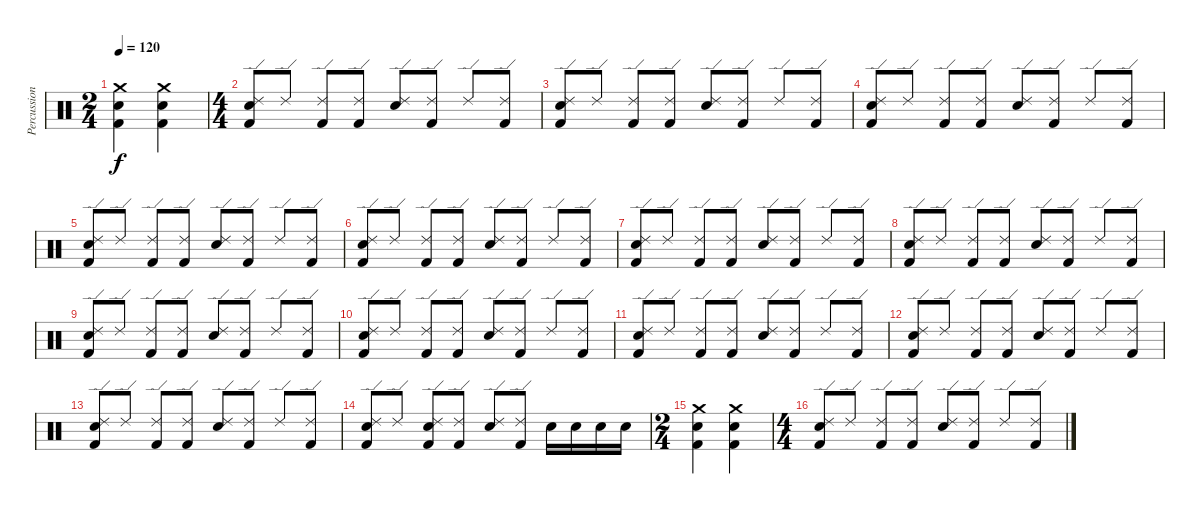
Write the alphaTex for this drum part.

\track ("Percussion" "Percussion") {instrument percussion}
\staff {score}
\articulation defaults
\ts (2 4)
\tempo 120
\clef neutral
\ks c
("Kick (hit) 2" "Electric Snare (hit)" "Crash medium (hit)").4{dy f} ("Kick (hit) 2" "Electric Snare (hit)" "Crash medium (hit)").4 |
\ts (4 4)
("Kick (hit) 2" "Electric Snare (hit)" "Ride (edge) 2").8 "Ride (edge) 2".8 ("Kick (hit) 2" "Ride (edge) 2").8 ("Kick (hit) 2" "Ride (edge) 2").8 ("Electric Snare (hit)" "Ride (edge) 2").8 ("Kick (hit) 2" "Ride (edge) 2").8 "Ride (edge) 2".8 ("Kick (hit) 2" "Ride (edge) 2").8 |
("Kick (hit) 2" "Electric Snare (hit)" "Ride (edge) 2").8 "Ride (edge) 2".8 ("Kick (hit) 2" "Ride (edge) 2").8 ("Kick (hit) 2" "Ride (edge) 2").8 ("Electric Snare (hit)" "Ride (edge) 2").8 ("Kick (hit) 2" "Ride (edge) 2").8 "Ride (edge) 2".8 ("Kick (hit) 2" "Ride (edge) 2").8 |
("Kick (hit) 2" "Electric Snare (hit)" "Ride (edge) 2").8 "Ride (edge) 2".8 ("Kick (hit) 2" "Ride (edge) 2").8 ("Kick (hit) 2" "Ride (edge) 2").8 ("Electric Snare (hit)" "Ride (edge) 2").8 ("Kick (hit) 2" "Ride (edge) 2").8 "Ride (edge) 2".8 ("Kick (hit) 2" "Ride (edge) 2").8 |
("Kick (hit) 2" "Electric Snare (hit)" "Ride (edge) 2").8 "Ride (edge) 2".8 ("Kick (hit) 2" "Ride (edge) 2").8 ("Kick (hit) 2" "Ride (edge) 2").8 ("Electric Snare (hit)" "Ride (edge) 2").8 ("Kick (hit) 2" "Ride (edge) 2").8 "Ride (edge) 2".8 ("Kick (hit) 2" "Ride (edge) 2").8 |
("Kick (hit) 2" "Electric Snare (hit)" "Ride (edge) 2").8 "Ride (edge) 2".8 ("Kick (hit) 2" "Ride (edge) 2").8 ("Kick (hit) 2" "Ride (edge) 2").8 ("Electric Snare (hit)" "Ride (edge) 2").8 ("Kick (hit) 2" "Ride (edge) 2").8 "Ride (edge) 2".8 ("Kick (hit) 2" "Ride (edge) 2").8 |
("Kick (hit) 2" "Electric Snare (hit)" "Ride (edge) 2").8 "Ride (edge) 2".8 ("Kick (hit) 2" "Ride (edge) 2").8 ("Kick (hit) 2" "Ride (edge) 2").8 ("Electric Snare (hit)" "Ride (edge) 2").8 ("Kick (hit) 2" "Ride (edge) 2").8 "Ride (edge) 2".8 ("Kick (hit) 2" "Ride (edge) 2").8 |
("Kick (hit) 2" "Electric Snare (hit)" "Ride (edge) 2").8 "Ride (edge) 2".8 ("Kick (hit) 2" "Ride (edge) 2").8 ("Kick (hit) 2" "Ride (edge) 2").8 ("Electric Snare (hit)" "Ride (edge) 2").8 ("Kick (hit) 2" "Ride (edge) 2").8 "Ride (edge) 2".8 ("Kick (hit) 2" "Ride (edge) 2").8 |
("Kick (hit) 2" "Electric Snare (hit)" "Ride (edge) 2").8 "Ride (edge) 2".8 ("Kick (hit) 2" "Ride (edge) 2").8 ("Kick (hit) 2" "Ride (edge) 2").8 ("Electric Snare (hit)" "Ride (edge) 2").8 ("Kick (hit) 2" "Ride (edge) 2").8 "Ride (edge) 2".8 ("Kick (hit) 2" "Ride (edge) 2").8 |
("Kick (hit) 2" "Electric Snare (hit)" "Ride (edge) 2").8 "Ride (edge) 2".8 ("Kick (hit) 2" "Ride (edge) 2").8 ("Kick (hit) 2" "Ride (edge) 2").8 ("Electric Snare (hit)" "Ride (edge) 2").8 ("Kick (hit) 2" "Ride (edge) 2").8 "Ride (edge) 2".8 ("Kick (hit) 2" "Ride (edge) 2").8 |
("Kick (hit) 2" "Electric Snare (hit)" "Ride (edge) 2").8 "Ride (edge) 2".8 ("Kick (hit) 2" "Ride (edge) 2").8 ("Kick (hit) 2" "Ride (edge) 2").8 ("Electric Snare (hit)" "Ride (edge) 2").8 ("Kick (hit) 2" "Ride (edge) 2").8 "Ride (edge) 2".8 ("Kick (hit) 2" "Ride (edge) 2").8 |
("Kick (hit) 2" "Electric Snare (hit)" "Ride (edge) 2").8 "Ride (edge) 2".8 ("Kick (hit) 2" "Ride (edge) 2").8 ("Kick (hit) 2" "Ride (edge) 2").8 ("Electric Snare (hit)" "Ride (edge) 2").8 ("Kick (hit) 2" "Ride (edge) 2").8 "Ride (edge) 2".8 ("Kick (hit) 2" "Ride (edge) 2").8 |
("Kick (hit) 2" "Electric Snare (hit)" "Ride (edge) 2").8 "Ride (edge) 2".8 ("Kick (hit) 2" "Ride (edge) 2").8 ("Kick (hit) 2" "Ride (edge) 2").8 ("Electric Snare (hit)" "Ride (edge) 2").8 ("Kick (hit) 2" "Ride (edge) 2").8 "Ride (edge) 2".8 ("Kick (hit) 2" "Ride (edge) 2").8 |
("Kick (hit) 2" "Electric Snare (hit)" "Ride (edge) 2").8 "Ride (edge) 2".8 ("Kick (hit) 2" "Electric Snare (hit)" "Ride (edge) 2").8 ("Kick (hit) 2" "Ride (edge) 2").8 ("Electric Snare (hit)" "Ride (edge) 2").8 ("Kick (hit) 2" "Ride (edge) 2").8 "Electric Snare (hit)".16 "Electric Snare (hit)".16 "Electric Snare (hit)".16 "Electric Snare (hit)".16 |
\ts (2 4)
("Kick (hit) 2" "Electric Snare (hit)" "Crash medium (hit)").4 ("Kick (hit) 2" "Electric Snare (hit)" "Crash medium (hit)").4 |
\ts (4 4)
("Kick (hit) 2" "Electric Snare (hit)" "Ride (edge) 2").8 "Ride (edge) 2".8 ("Kick (hit) 2" "Ride (edge) 2").8 ("Kick (hit) 2" "Ride (edge) 2").8 ("Electric Snare (hit)" "Ride (edge) 2").8 ("Kick (hit) 2" "Ride (edge) 2").8 "Ride (edge) 2".8 ("Kick (hit) 2" "Ride (edge) 2").8
